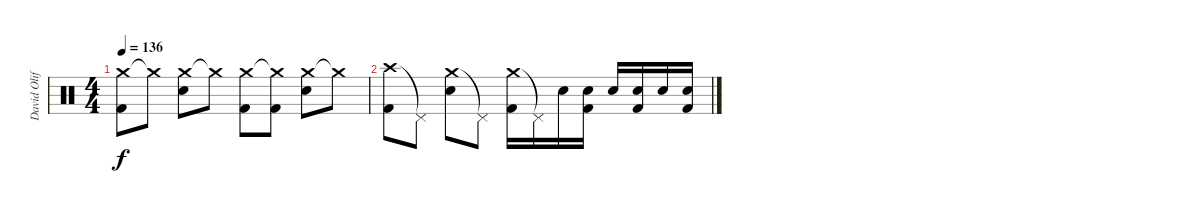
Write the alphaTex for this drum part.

\track ("David Oliffe" "David Olif") {instrument percussion}
\staff {score}
\articulation defaults
\ts (4 4)
\tempo 136
\clef neutral
\ks c
("Crash medium (hit)" "Kick (hit) 2").8{dy f} "Crash medium (hit)"{t}.8 ("Crash medium (hit)" "Electric Snare (hit)").8 "Crash medium (hit)"{t}.8 ("Crash medium (hit)" "Kick (hit) 2").8 ("Crash medium (hit)"{t} "Kick (hit) 2").8 ("Crash medium (hit)" "Electric Snare (hit)").8 "Crash medium (hit)"{t}.8 |
("Crash high (hit)" "Kick (hit) 2").8 "Pedal Hi-Hat (hit)"{t}.8 ("Crash medium (hit)" "Electric Snare (hit)").8 "Pedal Hi-Hat (hit)"{t}.8 ("Crash medium (hit)" "Kick (hit) 2").16 "Pedal Hi-Hat (hit)"{t}.16 "Electric Snare (hit)".16 ("Electric Snare (hit)" "Kick (hit) 2").16 "Electric Snare (hit)".16 ("Electric Snare (hit)" "Kick (hit) 2").16 "Electric Snare (hit)".16 ("Electric Snare (hit)" "Kick (hit) 2").16
